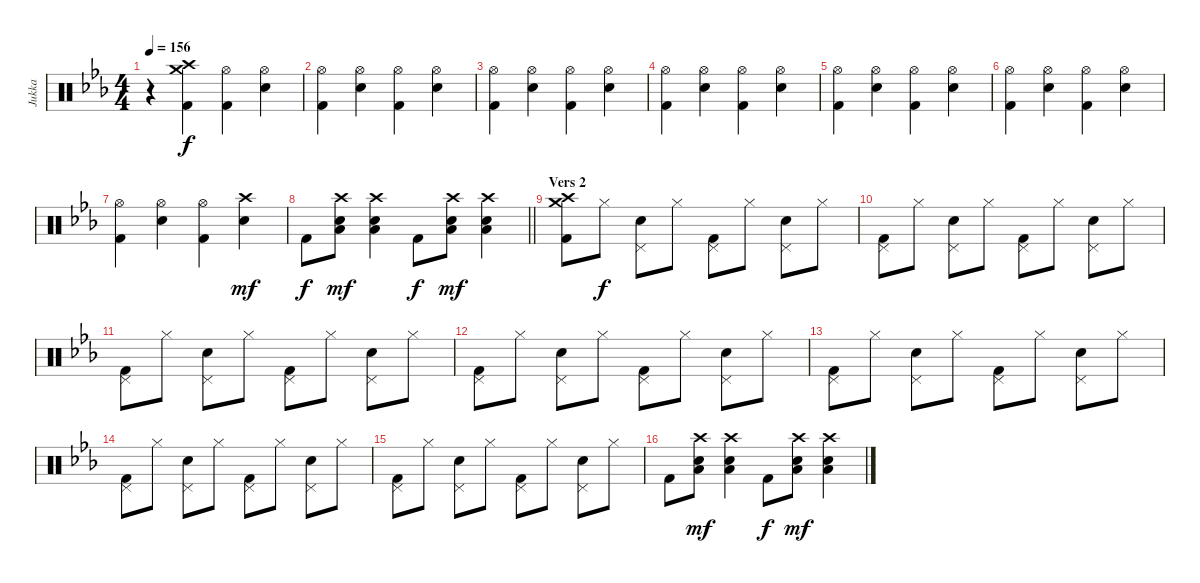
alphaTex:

\track ("Jukka" "Jukka") {instrument percussion}
\staff {score}
\articulation defaults
\ts (4 4)
\tempo 156
\clef neutral
\ks cminor
r.4{dy f} ("Crash medium (hit)" "Crash high (hit)" "Kick (hit) 2").4 ("Hi-Hat (open)" "Kick (hit) 2").4 ("Hi-Hat (open)" "Electric Snare (hit)").4 |
("Hi-Hat (open)" "Kick (hit) 2").4 ("Hi-Hat (open)" "Electric Snare (hit)").4 ("Hi-Hat (open)" "Kick (hit) 2").4 ("Hi-Hat (open)" "Electric Snare (hit)").4 |
("Hi-Hat (open)" "Kick (hit) 2").4 ("Hi-Hat (open)" "Electric Snare (hit)").4 ("Hi-Hat (open)" "Kick (hit) 2").4 ("Hi-Hat (open)" "Electric Snare (hit)").4 |
("Hi-Hat (open)" "Kick (hit) 2").4 ("Hi-Hat (open)" "Electric Snare (hit)").4 ("Hi-Hat (open)" "Kick (hit) 2").4 ("Hi-Hat (open)" "Electric Snare (hit)").4 |
("Hi-Hat (open)" "Kick (hit) 2").4 ("Hi-Hat (open)" "Electric Snare (hit)").4 ("Hi-Hat (open)" "Kick (hit) 2").4 ("Hi-Hat (open)" "Electric Snare (hit)").4 |
("Hi-Hat (open)" "Kick (hit) 2").4 ("Hi-Hat (open)" "Electric Snare (hit)").4 ("Hi-Hat (open)" "Kick (hit) 2").4 ("Hi-Hat (open)" "Electric Snare (hit)").4 |
("Hi-Hat (open)" "Kick (hit) 2").4 ("Hi-Hat (open)" "Electric Snare (hit)").4 ("Hi-Hat (open)" "Kick (hit) 2").4 ("Crash high (hit)" "Electric Snare (hit)").4{dy mf} |
\barLineRight lightlight "Kick (hit) 2".8{dy f}
("Crash high (hit)" "Low Floor Tom (hit)" "Electric Snare (hit)").8{dy mf} ("Crash high (hit)" "Low Floor Tom (hit)" "Electric Snare (hit)").4 "Kick (hit) 2".8{dy f} ("Crash high (hit)" "Low Floor Tom (hit)" "Electric Snare (hit)").8{dy mf} ("Crash high (hit)" "Low Floor Tom (hit)" "Electric Snare (hit)").4 |
\section ("" "Vers 2")
("Crash medium (hit)" "Crash high (hit)" "Kick (hit) 2").8 "Hi-Hat (closed)".8{dy f} ("Pedal Hi-Hat (hit)" "Electric Snare (hit)").8 "Hi-Hat (closed)".8 ("Pedal Hi-Hat (hit)" "Kick (hit) 2").8 "Hi-Hat (closed)".8 ("Pedal Hi-Hat (hit)" "Electric Snare (hit)").8 "Hi-Hat (closed)".8 |
("Pedal Hi-Hat (hit)" "Kick (hit) 2").8 "Hi-Hat (closed)".8 ("Pedal Hi-Hat (hit)" "Electric Snare (hit)").8 "Hi-Hat (closed)".8 ("Pedal Hi-Hat (hit)" "Kick (hit) 2").8 "Hi-Hat (closed)".8 ("Pedal Hi-Hat (hit)" "Electric Snare (hit)").8 "Hi-Hat (closed)".8 |
("Pedal Hi-Hat (hit)" "Kick (hit) 2").8 "Hi-Hat (closed)".8 ("Pedal Hi-Hat (hit)" "Electric Snare (hit)").8 "Hi-Hat (closed)".8 ("Pedal Hi-Hat (hit)" "Kick (hit) 2").8 "Hi-Hat (closed)".8 ("Pedal Hi-Hat (hit)" "Electric Snare (hit)").8 "Hi-Hat (closed)".8 |
("Pedal Hi-Hat (hit)" "Kick (hit) 2").8 "Hi-Hat (closed)".8 ("Pedal Hi-Hat (hit)" "Electric Snare (hit)").8 "Hi-Hat (closed)".8 ("Pedal Hi-Hat (hit)" "Kick (hit) 2").8 "Hi-Hat (closed)".8 ("Pedal Hi-Hat (hit)" "Electric Snare (hit)").8 "Hi-Hat (closed)".8 |
("Pedal Hi-Hat (hit)" "Kick (hit) 2").8 "Hi-Hat (closed)".8 ("Pedal Hi-Hat (hit)" "Electric Snare (hit)").8 "Hi-Hat (closed)".8 ("Pedal Hi-Hat (hit)" "Kick (hit) 2").8 "Hi-Hat (closed)".8 ("Pedal Hi-Hat (hit)" "Electric Snare (hit)").8 "Hi-Hat (closed)".8 |
("Pedal Hi-Hat (hit)" "Kick (hit) 2").8 "Hi-Hat (closed)".8 ("Pedal Hi-Hat (hit)" "Electric Snare (hit)").8 "Hi-Hat (closed)".8 ("Pedal Hi-Hat (hit)" "Kick (hit) 2").8 "Hi-Hat (closed)".8 ("Pedal Hi-Hat (hit)" "Electric Snare (hit)").8 "Hi-Hat (closed)".8 |
("Pedal Hi-Hat (hit)" "Kick (hit) 2").8 "Hi-Hat (closed)".8 ("Pedal Hi-Hat (hit)" "Electric Snare (hit)").8 "Hi-Hat (closed)".8 ("Pedal Hi-Hat (hit)" "Kick (hit) 2").8 "Hi-Hat (closed)".8 ("Pedal Hi-Hat (hit)" "Electric Snare (hit)").8 "Hi-Hat (closed)".8 |
"Kick (hit) 2".8 ("Crash high (hit)" "Low Floor Tom (hit)" "Electric Snare (hit)").8{dy mf} ("Crash high (hit)" "Low Floor Tom (hit)" "Electric Snare (hit)").4 "Kick (hit) 2".8{dy f} ("Crash high (hit)" "Low Floor Tom (hit)" "Electric Snare (hit)").8{dy mf} ("Crash high (hit)" "Low Floor Tom (hit)" "Electric Snare (hit)").4
